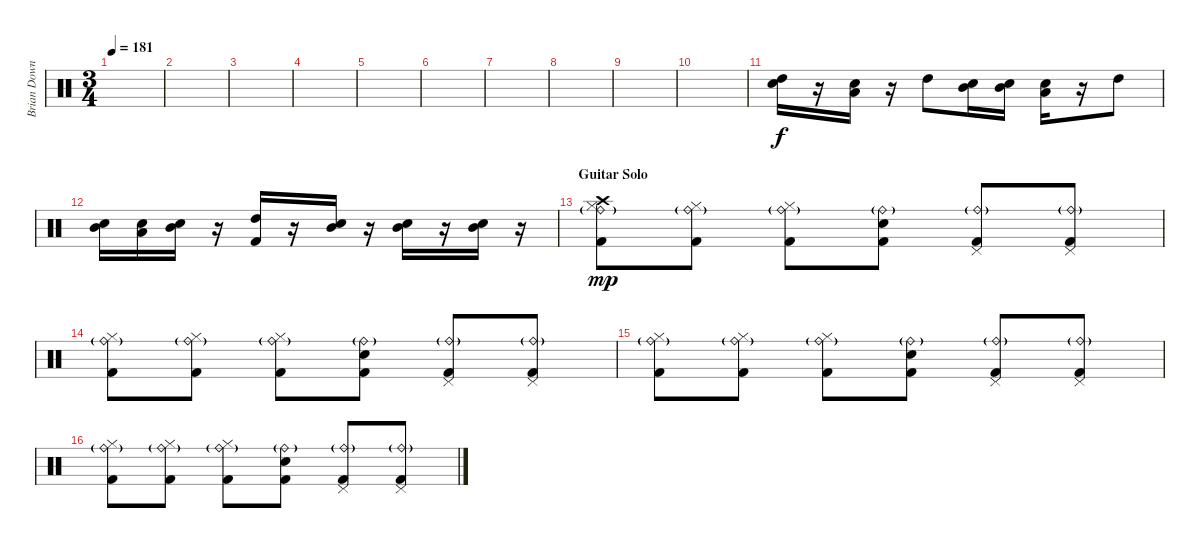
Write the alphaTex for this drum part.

\track ("Brian Downey" "Brian Down") {instrument percussion}
\staff {score}
\articulation defaults
\ts (3 4)
\tempo 181
\clef neutral
\ks c
|
|
|
|
|
|
|
|
|
|
("High Tom (hit)" "Snare (hit) 2").16 r.16 ("Low Tom (hit)" "Electric Snare (hit)").16 r.16 "High Tom (hit)".8 ("Mid Tom (hit)" "Electric Snare (hit)").16 ("Mid Tom (hit)" "Electric Snare (hit)").16 ("Low Tom (hit)" "Snare (hit) 2").16 r.16 "High Tom (hit)".8 |
("Mid Tom (hit)" "Electric Snare (hit)").16 ("Low Tom (hit)" "Electric Snare (hit)").16 ("Mid Tom (hit)" "Snare (hit) 2").16 r.16 ("High Tom (hit)" "Kick (hit) 2").16 r.16 ("Electric Snare (hit)" "Mid Tom (hit)").16 r.16 ("Electric Snare (hit)" "Mid Tom (hit)").16 r.16 ("Electric Snare (hit)" "Mid Tom (hit)").16 r.16 |
\section ("" "Guitar Solo")
("Crash high (hit)" "Ride (bell)"{g} "Hi-Hat (closed)" "Kick (hit) 2").8{dy mp} ("Ride (bell)"{g} "Hi-Hat (closed)" "Kick (hit) 2").8 ("Ride (bell)"{g} "Hi-Hat (closed)" "Kick (hit) 2").8 ("Ride (bell)"{g} "Snare (hit) 2" "Kick (hit) 2").8 ("Ride (bell)"{g} "Pedal Hi-Hat (hit)" "Kick (hit) 2").8 ("Ride (bell)"{g} "Pedal Hi-Hat (hit)" "Kick (hit) 2").8 |
("Ride (bell)"{g} "Hi-Hat (closed)" "Kick (hit) 2").8 ("Ride (bell)"{g} "Hi-Hat (closed)" "Kick (hit) 2").8 ("Ride (bell)"{g} "Hi-Hat (closed)" "Kick (hit) 2").8 ("Ride (bell)"{g} "Snare (hit) 2" "Kick (hit) 2").8 ("Ride (bell)"{g} "Pedal Hi-Hat (hit)" "Kick (hit) 2").8 ("Ride (bell)"{g} "Pedal Hi-Hat (hit)" "Kick (hit) 2").8 |
("Ride (bell)"{g} "Hi-Hat (closed)" "Kick (hit) 2").8 ("Ride (bell)"{g} "Hi-Hat (closed)" "Kick (hit) 2").8 ("Ride (bell)"{g} "Hi-Hat (closed)" "Kick (hit) 2").8 ("Ride (bell)"{g} "Snare (hit) 2" "Kick (hit) 2").8 ("Ride (bell)"{g} "Pedal Hi-Hat (hit)" "Kick (hit) 2").8 ("Ride (bell)"{g} "Pedal Hi-Hat (hit)" "Kick (hit) 2").8 |
("Ride (bell)"{g} "Hi-Hat (closed)" "Kick (hit) 2").8 ("Ride (bell)"{g} "Hi-Hat (closed)" "Kick (hit) 2").8 ("Ride (bell)"{g} "Hi-Hat (closed)" "Kick (hit) 2").8 ("Ride (bell)"{g} "Snare (hit) 2" "Kick (hit) 2").8 ("Ride (bell)"{g} "Pedal Hi-Hat (hit)" "Kick (hit) 2").8 ("Ride (bell)"{g} "Pedal Hi-Hat (hit)" "Kick (hit) 2").8
